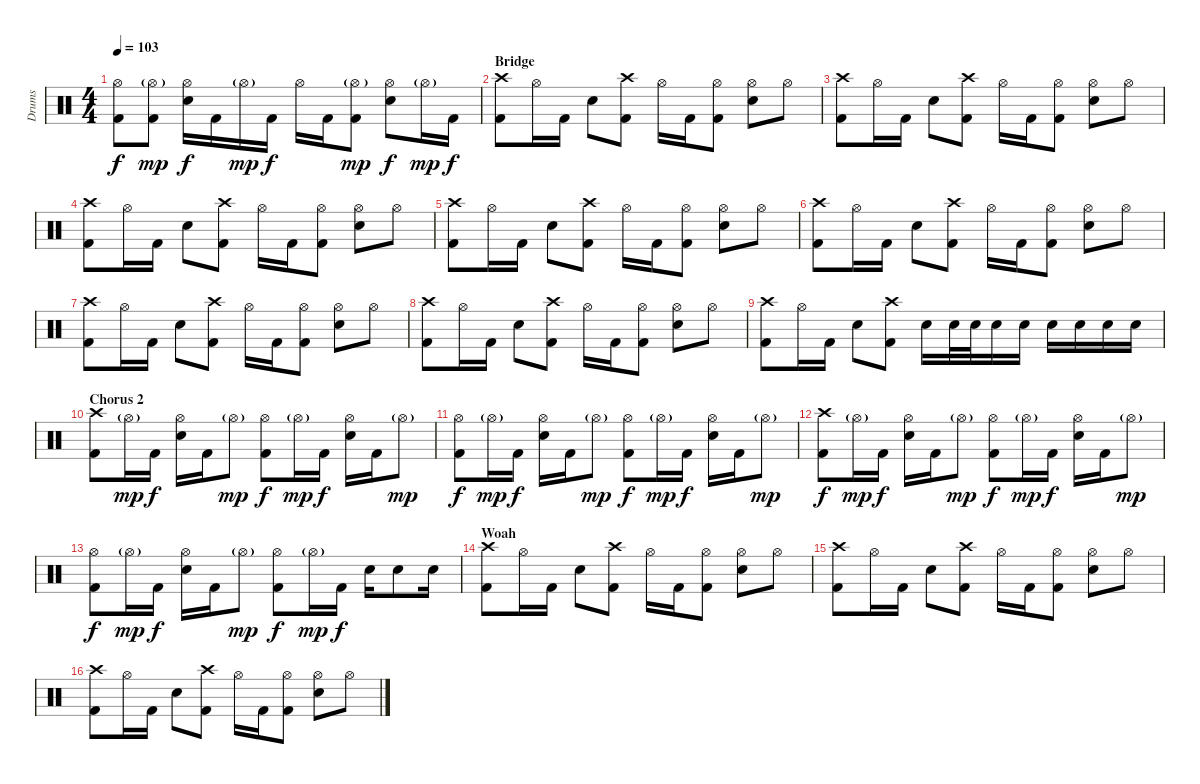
\track ("Drums" "Drums") {instrument percussion}
\staff {score}
\articulation defaults
\ts (4 4)
\tempo 103
\clef neutral
\ks c
("Hi-Hat (open)" "Kick (hit) 2").8{dy f} ("Hi-Hat (open)"{g} "Kick (hit) 2").8{dy mp} ("Hi-Hat (open)" "Snare (hit) 2").16{dy f} "Kick (hit) 2".16 "Hi-Hat (open)"{g}.16{dy mp} "Kick (hit) 2".16{dy f} "Hi-Hat (open)".16 "Kick (hit) 2".16 ("Hi-Hat (open)"{g} "Kick (hit) 2").8{dy mp} ("Hi-Hat (open)" "Snare (hit) 2").8{dy f} "Hi-Hat (open)"{g}.16{dy mp} "Kick (hit) 2".16{dy f} |
\section ("" "Bridge")
("Crash high (hit)" "Kick (hit) 2").8 "Hi-Hat (open)".16 "Kick (hit) 2".16 "Snare (hit) 2".8 ("Crash high (hit)" "Kick (hit) 2").8 "Hi-Hat (open)".16 "Kick (hit) 2".16 ("Hi-Hat (open)" "Kick (hit) 2").8 ("Hi-Hat (open)" "Snare (hit) 2").8 "Hi-Hat (open)".8 |
("Crash high (hit)" "Kick (hit) 2").8 "Hi-Hat (open)".16 "Kick (hit) 2".16 "Snare (hit) 2".8 ("Crash high (hit)" "Kick (hit) 2").8 "Hi-Hat (open)".16 "Kick (hit) 2".16 ("Hi-Hat (open)" "Kick (hit) 2").8 ("Hi-Hat (open)" "Snare (hit) 2").8 "Hi-Hat (open)".8 |
("Crash high (hit)" "Kick (hit) 2").8 "Hi-Hat (open)".16 "Kick (hit) 2".16 "Snare (hit) 2".8 ("Crash high (hit)" "Kick (hit) 2").8 "Hi-Hat (open)".16 "Kick (hit) 2".16 ("Hi-Hat (open)" "Kick (hit) 2").8 ("Hi-Hat (open)" "Snare (hit) 2").8 "Hi-Hat (open)".8 |
("Crash high (hit)" "Kick (hit) 2").8 "Hi-Hat (open)".16 "Kick (hit) 2".16 "Snare (hit) 2".8 ("Crash high (hit)" "Kick (hit) 2").8 "Hi-Hat (open)".16 "Kick (hit) 2".16 ("Hi-Hat (open)" "Kick (hit) 2").8 ("Hi-Hat (open)" "Snare (hit) 2").8 "Hi-Hat (open)".8 |
("Crash high (hit)" "Kick (hit) 2").8 "Hi-Hat (open)".16 "Kick (hit) 2".16 "Snare (hit) 2".8 ("Crash high (hit)" "Kick (hit) 2").8 "Hi-Hat (open)".16 "Kick (hit) 2".16 ("Hi-Hat (open)" "Kick (hit) 2").8 ("Hi-Hat (open)" "Snare (hit) 2").8 "Hi-Hat (open)".8 |
("Crash high (hit)" "Kick (hit) 2").8 "Hi-Hat (open)".16 "Kick (hit) 2".16 "Snare (hit) 2".8 ("Crash high (hit)" "Kick (hit) 2").8 "Hi-Hat (open)".16 "Kick (hit) 2".16 ("Hi-Hat (open)" "Kick (hit) 2").8 ("Hi-Hat (open)" "Snare (hit) 2").8 "Hi-Hat (open)".8 |
("Crash high (hit)" "Kick (hit) 2").8 "Hi-Hat (open)".16 "Kick (hit) 2".16 "Snare (hit) 2".8 ("Crash high (hit)" "Kick (hit) 2").8 "Hi-Hat (open)".16 "Kick (hit) 2".16 ("Hi-Hat (open)" "Kick (hit) 2").8 ("Hi-Hat (open)" "Snare (hit) 2").8 "Hi-Hat (open)".8 |
("Crash high (hit)" "Kick (hit) 2").8 "Hi-Hat (open)".16 "Kick (hit) 2".16 "Snare (hit) 2".8 ("Crash high (hit)" "Kick (hit) 2").8 "Snare (hit) 2".16 "Snare (hit) 2".32 "Snare (hit) 2".32 "Snare (hit) 2".16 "Snare (hit) 2".16 "Snare (hit) 2".16 "Snare (hit) 2".16 "Snare (hit) 2".16 "Snare (hit) 2".16 |
\section ("" "Chorus 2")
("Crash high (hit)" "Kick (hit) 2").8 "Hi-Hat (open)"{g}.16{dy mp} "Kick (hit) 2".16{dy f} ("Hi-Hat (open)" "Snare (hit) 2").16 "Kick (hit) 2".16 "Hi-Hat (open)"{g}.8{dy mp} ("Hi-Hat (open)" "Kick (hit) 2").8{dy f} "Hi-Hat (open)"{g}.16{dy mp} "Kick (hit) 2".16{dy f} ("Hi-Hat (open)" "Snare (hit) 2").16 "Kick (hit) 2".16 "Hi-Hat (open)"{g}.8{dy mp} |
("Hi-Hat (open)" "Kick (hit) 2").8{dy f} "Hi-Hat (open)"{g}.16{dy mp} "Kick (hit) 2".16{dy f} ("Hi-Hat (open)" "Snare (hit) 2").16 "Kick (hit) 2".16 "Hi-Hat (open)"{g}.8{dy mp} ("Hi-Hat (open)" "Kick (hit) 2").8{dy f} "Hi-Hat (open)"{g}.16{dy mp} "Kick (hit) 2".16{dy f} ("Hi-Hat (open)" "Snare (hit) 2").16 "Kick (hit) 2".16 "Hi-Hat (open)"{g}.8{dy mp} |
("Crash high (hit)" "Kick (hit) 2").8{dy f} "Hi-Hat (open)"{g}.16{dy mp} "Kick (hit) 2".16{dy f} ("Hi-Hat (open)" "Snare (hit) 2").16 "Kick (hit) 2".16 "Hi-Hat (open)"{g}.8{dy mp} ("Hi-Hat (open)" "Kick (hit) 2").8{dy f} "Hi-Hat (open)"{g}.16{dy mp} "Kick (hit) 2".16{dy f} ("Hi-Hat (open)" "Snare (hit) 2").16 "Kick (hit) 2".16 "Hi-Hat (open)"{g}.8{dy mp} |
("Hi-Hat (open)" "Kick (hit) 2").8{dy f} "Hi-Hat (open)"{g}.16{dy mp} "Kick (hit) 2".16{dy f} ("Hi-Hat (open)" "Snare (hit) 2").16 "Kick (hit) 2".16 "Hi-Hat (open)"{g}.8{dy mp} ("Hi-Hat (open)" "Kick (hit) 2").8{dy f} "Hi-Hat (open)"{g}.16{dy mp} "Kick (hit) 2".16{dy f} "Snare (hit) 2".16 "Snare (hit) 2".8 "Snare (hit) 2".16 |
\section ("" "Woah")
("Crash high (hit)" "Kick (hit) 2").8 "Hi-Hat (open)".16 "Kick (hit) 2".16 "Snare (hit) 2".8 ("Crash high (hit)" "Kick (hit) 2").8 "Hi-Hat (open)".16 "Kick (hit) 2".16 ("Hi-Hat (open)" "Kick (hit) 2").8 ("Hi-Hat (open)" "Snare (hit) 2").8 "Hi-Hat (open)".8 |
("Crash high (hit)" "Kick (hit) 2").8 "Hi-Hat (open)".16 "Kick (hit) 2".16 "Snare (hit) 2".8 ("Crash high (hit)" "Kick (hit) 2").8 "Hi-Hat (open)".16 "Kick (hit) 2".16 ("Hi-Hat (open)" "Kick (hit) 2").8 ("Hi-Hat (open)" "Snare (hit) 2").8 "Hi-Hat (open)".8 |
("Crash high (hit)" "Kick (hit) 2").8 "Hi-Hat (open)".16 "Kick (hit) 2".16 "Snare (hit) 2".8 ("Crash high (hit)" "Kick (hit) 2").8 "Hi-Hat (open)".16 "Kick (hit) 2".16 ("Hi-Hat (open)" "Kick (hit) 2").8 ("Hi-Hat (open)" "Snare (hit) 2").8 "Hi-Hat (open)".8
